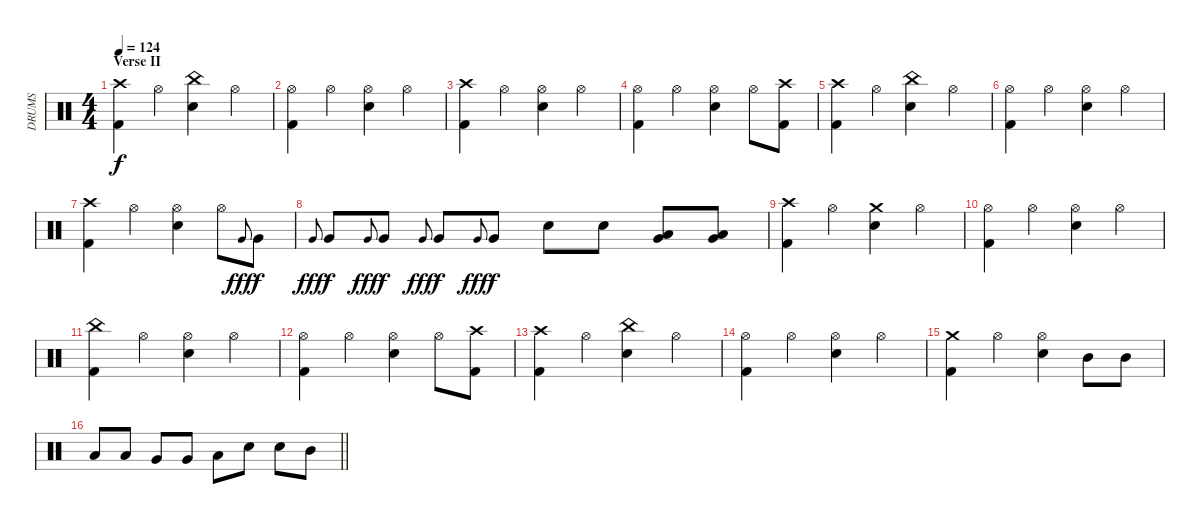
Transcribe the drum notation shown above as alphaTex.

\track ("DRUMS" "DRUMS") {instrument percussion}
\staff {score}
\articulation defaults
\ts (4 4)
\section ("" "Verse II")
\tempo 124
\clef neutral
\ks c
("Crash high (hit)" "Kick (hit) 2").4{dy f} "Hi-Hat (open)".4 ("China (hit)" "Snare (hit) 2").4 "Hi-Hat (open)".4 |
("Hi-Hat (open)" "Kick (hit) 2").4 "Hi-Hat (open)".4 ("Hi-Hat (open)" "Snare (hit) 2").4 "Hi-Hat (open)".4 |
("Crash high (hit)" "Kick (hit) 2").4 "Hi-Hat (open)".4 ("Hi-Hat (open)" "Snare (hit) 2").4 "Hi-Hat (open)".4 |
("Hi-Hat (open)" "Kick (hit) 2").4 "Hi-Hat (open)".4 ("Hi-Hat (open)" "Snare (hit) 2").4 "Hi-Hat (open)".8 ("Crash high (hit)" "Kick (hit) 2").8 |
("Crash high (hit)" "Kick (hit) 2").4 "Hi-Hat (open)".4 ("China (hit)" "Snare (hit) 2").4 "Hi-Hat (open)".4 |
("Hi-Hat (open)" "Kick (hit) 2").4 "Hi-Hat (open)".4 ("Hi-Hat (open)" "Snare (hit) 2").4 "Hi-Hat (open)".4 |
("Crash high (hit)" "Kick (hit) 2").4 "Hi-Hat (open)".4 ("Hi-Hat (open)" "Snare (hit) 2").4 "Hi-Hat (open)".8 "Very Low Tom (hit)".8{gr onbeat dy fff} "Very Low Tom (hit)".8{dy f} |
"Very Low Tom (hit)".8{gr onbeat dy fff} "Very Low Tom (hit)".8{dy f} "Very Low Tom (hit)".8{gr onbeat dy fff} "Very Low Tom (hit)".8{dy f} "Very Low Tom (hit)".8{gr onbeat dy fff} "Very Low Tom (hit)".8{dy f} "Very Low Tom (hit)".8{gr onbeat dy fff} "Very Low Tom (hit)".8{dy f} "Snare (hit) 2".8 "Snare (hit) 2".8 ("Low Floor Tom (hit)" "Very Low Tom (hit)").8 ("Low Floor Tom (hit)" "Very Low Tom (hit)").8 |
("Crash high (hit)" "Kick (hit) 2").4 "Hi-Hat (open)".4 ("Crash medium (hit)" "Snare (hit) 2").4 "Hi-Hat (open)".4 |
("Hi-Hat (open)" "Kick (hit) 2").4 "Hi-Hat (open)".4 ("Hi-Hat (open)" "Snare (hit) 2").4 "Hi-Hat (open)".4 |
("China (hit)" "Kick (hit) 2").4 "Hi-Hat (open)".4 ("Hi-Hat (open)" "Snare (hit) 2").4 "Hi-Hat (open)".4 |
("Hi-Hat (open)" "Kick (hit) 2").4 "Hi-Hat (open)".4 ("Hi-Hat (open)" "Snare (hit) 2").4 "Hi-Hat (open)".8 ("Crash high (hit)" "Kick (hit) 2").8 |
("Crash high (hit)" "Kick (hit) 2").4 "Hi-Hat (open)".4 ("China (hit)" "Snare (hit) 2").4 "Hi-Hat (open)".4 |
("Hi-Hat (open)" "Kick (hit) 2").4 "Hi-Hat (open)".4 ("Hi-Hat (open)" "Snare (hit) 2").4 "Hi-Hat (open)".4 |
("Crash medium (hit)" "Kick (hit) 2").4 "Hi-Hat (open)".4 ("Hi-Hat (open)" "Snare (hit) 2").4 "Mid Tom (hit)".8 "Mid Tom (hit)".8 |
\barLineRight lightlight "Low Tom (hit)".8 "Low Tom (hit)".8 "Very Low Tom (hit)".8 "Very Low Tom (hit)".8 "Low Floor Tom (hit)".8 "Snare (hit) 2".8 "Snare (hit) 2".8 "Mid Tom (hit)".8
